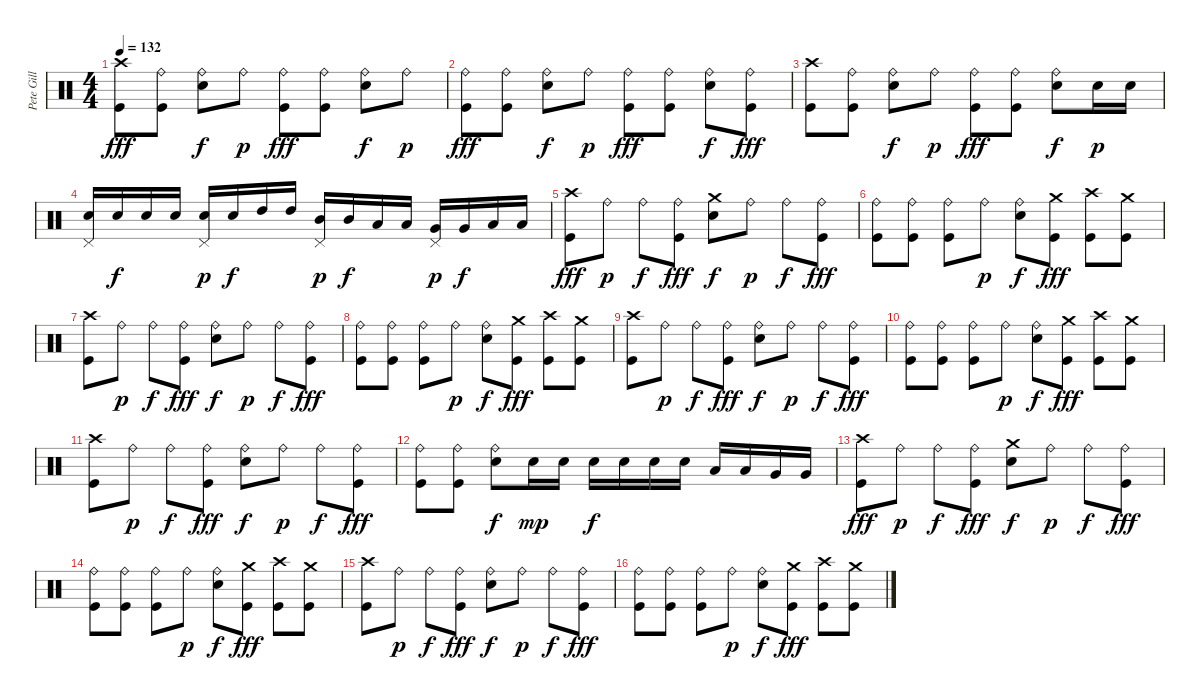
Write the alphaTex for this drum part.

\track ("Pete Gill" "Pete Gill") {instrument percussion}
\staff {score}
\articulation defaults
\ts (4 4)
\tempo 132
\clef neutral
\ks c
("Crash high (hit)" "Kick (hit)").8{dy fff} ("Ride (bell)" "Kick (hit)").8 ("Ride (bell)" "Electric Snare (hit)").8{dy f} "Ride (bell)".8{dy p} ("Ride (bell)" "Kick (hit)").8{dy fff} ("Ride (bell)" "Kick (hit)").8 ("Ride (bell)" "Electric Snare (hit)").8{dy f} "Ride (bell)".8{dy p} |
("Ride (bell)" "Kick (hit)").8{dy fff} ("Ride (bell)" "Kick (hit)").8 ("Ride (bell)" "Electric Snare (hit)").8{dy f} "Ride (bell)".8{dy p} ("Ride (bell)" "Kick (hit)").8{dy fff} ("Ride (bell)" "Kick (hit)").8 ("Ride (bell)" "Electric Snare (hit)").8{dy f} ("Ride (bell)" "Kick (hit)").8{dy fff} |
("Crash high (hit)" "Kick (hit)").8 ("Ride (bell)" "Kick (hit)").8 ("Ride (bell)" "Electric Snare (hit)").8{dy f} "Ride (bell)".8{dy p} ("Ride (bell)" "Kick (hit)").8{dy fff} ("Ride (bell)" "Kick (hit)").8 ("Ride (bell)" "Electric Snare (hit)").8{dy f} "Electric Snare (hit)".16{dy p} "Electric Snare (hit)".16 |
("Pedal Hi-Hat (hit)" "Electric Snare (hit)").16 "Electric Snare (hit)".16{dy f} "Electric Snare (hit)".16 "Electric Snare (hit)".16 ("Pedal Hi-Hat (hit)" "Electric Snare (hit)").16{dy p} "Electric Snare (hit)".16{dy f} "High Tom (hit)".16 "High Tom (hit)".16 ("Pedal Hi-Hat (hit)" "Mid Tom (hit)").16{dy p} "Mid Tom (hit)".16{dy f} "Low Tom (hit)".16 "Low Tom (hit)".16 ("Pedal Hi-Hat (hit)" "Very Low Tom (hit)").16{dy p} "Very Low Tom (hit)".16{dy f} "Low Floor Tom (hit)".16 "Low Floor Tom (hit)".16 |
("Crash high (hit)" "Kick (hit)").8{dy fff} "Ride (bell)".8{dy p} "Ride (bell)".8{dy f} ("Ride (bell)" "Kick (hit)").8{dy fff} ("Crash medium (hit)" "Electric Snare (hit)").8{dy f} "Ride (bell)".8{dy p} "Ride (bell)".8{dy f} ("Ride (bell)" "Kick (hit)").8{dy fff} |
("Ride (bell)" "Kick (hit)").8 ("Ride (bell)" "Kick (hit)").8 ("Ride (bell)" "Kick (hit)").8 "Ride (bell)".8{dy p} ("Ride (bell)" "Electric Snare (hit)").8{dy f} ("Crash medium (hit)" "Kick (hit)").8{dy fff} ("Crash high (hit)" "Kick (hit)").8 ("Crash medium (hit)" "Kick (hit)").8 |
("Crash high (hit)" "Kick (hit)").8 "Ride (bell)".8{dy p} "Ride (bell)".8{dy f} ("Ride (bell)" "Kick (hit)").8{dy fff} ("Ride (bell)" "Electric Snare (hit)").8{dy f} "Ride (bell)".8{dy p} "Ride (bell)".8{dy f} ("Ride (bell)" "Kick (hit)").8{dy fff} |
("Ride (bell)" "Kick (hit)").8 ("Ride (bell)" "Kick (hit)").8 ("Ride (bell)" "Kick (hit)").8 "Ride (bell)".8{dy p} ("Ride (bell)" "Electric Snare (hit)").8{dy f} ("Crash medium (hit)" "Kick (hit)").8{dy fff} ("Crash high (hit)" "Kick (hit)").8 ("Crash medium (hit)" "Kick (hit)").8 |
("Crash high (hit)" "Kick (hit)").8 "Ride (bell)".8{dy p} "Ride (bell)".8{dy f} ("Ride (bell)" "Kick (hit)").8{dy fff} ("Ride (bell)" "Electric Snare (hit)").8{dy f} "Ride (bell)".8{dy p} "Ride (bell)".8{dy f} ("Ride (bell)" "Kick (hit)").8{dy fff} |
("Ride (bell)" "Kick (hit)").8 ("Ride (bell)" "Kick (hit)").8 ("Ride (bell)" "Kick (hit)").8 "Ride (bell)".8{dy p} ("Ride (bell)" "Electric Snare (hit)").8{dy f} ("Crash medium (hit)" "Kick (hit)").8{dy fff} ("Crash high (hit)" "Kick (hit)").8 ("Crash medium (hit)" "Kick (hit)").8 |
("Crash high (hit)" "Kick (hit)").8 "Ride (bell)".8{dy p} "Ride (bell)".8{dy f} ("Ride (bell)" "Kick (hit)").8{dy fff} ("Ride (bell)" "Electric Snare (hit)").8{dy f} "Ride (bell)".8{dy p} "Ride (bell)".8{dy f} ("Ride (bell)" "Kick (hit)").8{dy fff} |
("Ride (bell)" "Kick (hit)").8 ("Ride (bell)" "Kick (hit)").8 ("Ride (bell)" "Electric Snare (hit)").8{dy f} "Electric Snare (hit)".16{dy mp} "Electric Snare (hit)".16 "Electric Snare (hit)".16{dy f} "Electric Snare (hit)".16 "Electric Snare (hit)".16 "Electric Snare (hit)".16 "Low Tom (hit)".16 "Low Tom (hit)".16 "Very Low Tom (hit)".16 "Very Low Tom (hit)".16 |
("Crash high (hit)" "Kick (hit)").8{dy fff} "Ride (bell)".8{dy p} "Ride (bell)".8{dy f} ("Ride (bell)" "Kick (hit)").8{dy fff} ("Crash medium (hit)" "Electric Snare (hit)").8{dy f} "Ride (bell)".8{dy p} "Ride (bell)".8{dy f} ("Ride (bell)" "Kick (hit)").8{dy fff} |
("Ride (bell)" "Kick (hit)").8 ("Ride (bell)" "Kick (hit)").8 ("Ride (bell)" "Kick (hit)").8 "Ride (bell)".8{dy p} ("Ride (bell)" "Electric Snare (hit)").8{dy f} ("Crash medium (hit)" "Kick (hit)").8{dy fff} ("Crash high (hit)" "Kick (hit)").8 ("Crash medium (hit)" "Kick (hit)").8 |
("Crash high (hit)" "Kick (hit)").8 "Ride (bell)".8{dy p} "Ride (bell)".8{dy f} ("Ride (bell)" "Kick (hit)").8{dy fff} ("Ride (bell)" "Electric Snare (hit)").8{dy f} "Ride (bell)".8{dy p} "Ride (bell)".8{dy f} ("Ride (bell)" "Kick (hit)").8{dy fff} |
("Ride (bell)" "Kick (hit)").8 ("Ride (bell)" "Kick (hit)").8 ("Ride (bell)" "Kick (hit)").8 "Ride (bell)".8{dy p} ("Ride (bell)" "Electric Snare (hit)").8{dy f} ("Crash medium (hit)" "Kick (hit)").8{dy fff} ("Crash high (hit)" "Kick (hit)").8 ("Crash medium (hit)" "Kick (hit)").8
